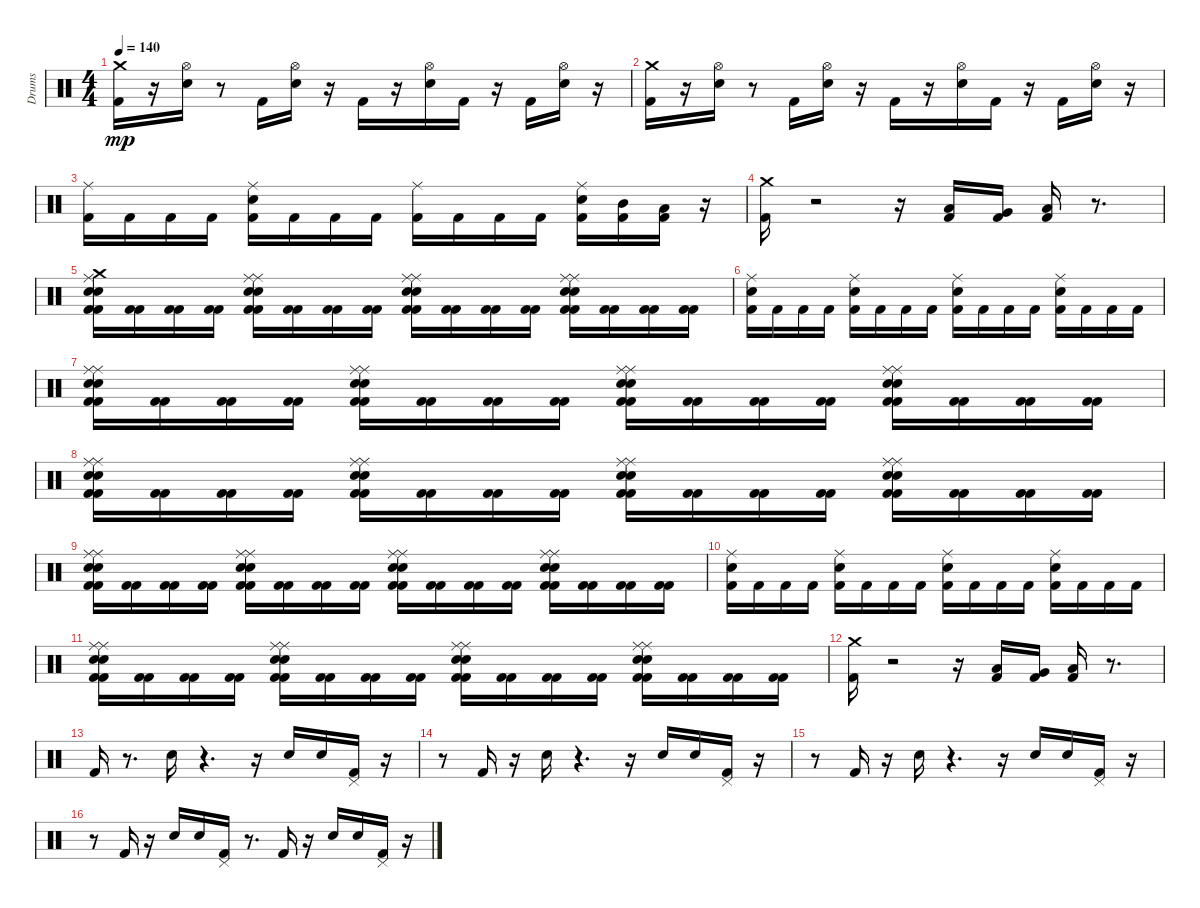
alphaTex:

\track ("Drums" "Drums") {instrument percussion}
\staff {score}
\articulation defaults
\ts (4 4)
\tempo 140
\clef neutral
\ks c
("Kick (hit) 2" "Crash medium (hit)").16{dy mp} r.16 ("Hi-Hat (open)" "Electric Snare (hit)").16 r.8 "Kick (hit) 2".16 ("Hi-Hat (open)" "Electric Snare (hit)").16 r.16 "Kick (hit) 2".16 r.16 ("Electric Snare (hit)" "Hi-Hat (open)").16 "Kick (hit) 2".16 r.16 "Kick (hit) 2".16 ("Electric Snare (hit)" "Hi-Hat (open)").16 r.16 |
("Kick (hit) 2" "Crash medium (hit)").16 r.16 ("Hi-Hat (open)" "Electric Snare (hit)").16 r.8 "Kick (hit) 2".16 ("Hi-Hat (open)" "Electric Snare (hit)").16 r.16 "Kick (hit) 2".16 r.16 ("Hi-Hat (open)" "Electric Snare (hit)").16 "Kick (hit) 2".16 r.16 "Kick (hit) 2".16 ("Hi-Hat (open)" "Electric Snare (hit)").16 r.16 |
("Kick (hit) 2" "Ride (middle)").16 "Kick (hit) 2".16 "Kick (hit) 2".16 "Kick (hit) 2".16 ("Ride (middle)" "Electric Snare (hit)" "Kick (hit) 2").16 "Kick (hit) 2".16 "Kick (hit) 2".16 "Kick (hit) 2".16 ("Ride (middle)" "Kick (hit) 2").16 "Kick (hit) 2".16 "Kick (hit) 2".16 "Kick (hit) 2".16 ("Kick (hit) 2" "Electric Snare (hit)" "Ride (middle)").16 ("Mid Tom (hit)" "Kick (hit) 2").16 ("Low Tom (hit)" "Kick (hit) 2").16 r.16 |
("Crash medium (hit)" "Kick (hit) 2").16 r.2 r.16 ("Low Tom (hit)" "Kick (hit) 2").16 ("Kick (hit) 2" "Very Low Tom (hit)").16 ("Low Floor Tom (hit)" "Kick (hit) 2").16 r.8{d} |
("Electric Snare (hit)" "Ride (middle)" "Electric Snare (hit)" "Kick (hit) 2" "Crash medium (hit)" "Kick (hit) 2").16 ("Kick (hit) 2" "Kick (hit) 2").16 ("Kick (hit) 2" "Kick (hit) 2").16 ("Kick (hit) 2" "Kick (hit) 2").16 ("Kick (hit) 2" "Ride (middle)" "Kick (hit) 2" "Electric Snare (hit)" "Electric Snare (hit)" "Ride (middle)").16 ("Kick (hit) 2" "Kick (hit) 2").16 ("Kick (hit) 2" "Kick (hit) 2").16 ("Kick (hit) 2" "Kick (hit) 2").16 ("Kick (hit) 2" "Electric Snare (hit)" "Kick (hit) 2" "Electric Snare (hit)" "Ride (middle)" "Ride (middle)").16 ("Kick (hit) 2" "Kick (hit) 2").16 ("Kick (hit) 2" "Kick (hit) 2").16 ("Kick (hit) 2" "Kick (hit) 2").16 ("Kick (hit) 2" "Electric Snare (hit)" "Ride (middle)" "Kick (hit) 2" "Electric Snare (hit)" "Ride (middle)").16 ("Kick (hit) 2" "Kick (hit) 2").16 ("Kick (hit) 2" "Kick (hit) 2").16 ("Kick (hit) 2" "Kick (hit) 2").16 |
("Kick (hit) 2" "Ride (middle)" "Electric Snare (hit)").16 "Kick (hit) 2".16 "Kick (hit) 2".16 "Kick (hit) 2".16 ("Ride (middle)" "Electric Snare (hit)" "Kick (hit) 2").16 "Kick (hit) 2".16 "Kick (hit) 2".16 "Kick (hit) 2".16 ("Ride (middle)" "Electric Snare (hit)" "Kick (hit) 2").16 "Kick (hit) 2".16 "Kick (hit) 2".16 "Kick (hit) 2".16 ("Kick (hit) 2" "Electric Snare (hit)" "Ride (middle)").16 "Kick (hit) 2".16 "Kick (hit) 2".16 "Kick (hit) 2".16 |
("Kick (hit) 2" "Kick (hit) 2" "Ride (middle)" "Electric Snare (hit)" "Electric Snare (hit)" "Ride (middle)").16 ("Kick (hit) 2" "Kick (hit) 2").16 ("Kick (hit) 2" "Kick (hit) 2").16 ("Kick (hit) 2" "Kick (hit) 2").16 ("Ride (middle)" "Electric Snare (hit)" "Kick (hit) 2" "Kick (hit) 2" "Ride (middle)" "Electric Snare (hit)").16 ("Kick (hit) 2" "Kick (hit) 2").16 ("Kick (hit) 2" "Kick (hit) 2").16 ("Kick (hit) 2" "Kick (hit) 2").16 ("Kick (hit) 2" "Ride (middle)" "Kick (hit) 2" "Ride (middle)" "Electric Snare (hit)" "Electric Snare (hit)").16 ("Kick (hit) 2" "Kick (hit) 2").16 ("Kick (hit) 2" "Kick (hit) 2").16 ("Kick (hit) 2" "Kick (hit) 2").16 ("Kick (hit) 2" "Ride (middle)" "Electric Snare (hit)" "Ride (middle)" "Electric Snare (hit)" "Kick (hit) 2").16 ("Kick (hit) 2" "Kick (hit) 2").16 ("Kick (hit) 2" "Kick (hit) 2").16 ("Kick (hit) 2" "Kick (hit) 2").16 |
("Kick (hit) 2" "Ride (middle)" "Kick (hit) 2" "Ride (middle)" "Electric Snare (hit)" "Electric Snare (hit)").16 ("Kick (hit) 2" "Kick (hit) 2").16 ("Kick (hit) 2" "Kick (hit) 2").16 ("Kick (hit) 2" "Kick (hit) 2").16 ("Kick (hit) 2" "Ride (middle)" "Electric Snare (hit)" "Ride (middle)" "Kick (hit) 2" "Electric Snare (hit)").16 ("Kick (hit) 2" "Kick (hit) 2").16 ("Kick (hit) 2" "Kick (hit) 2").16 ("Kick (hit) 2" "Kick (hit) 2").16 ("Ride (middle)" "Electric Snare (hit)" "Electric Snare (hit)" "Ride (middle)" "Kick (hit) 2" "Kick (hit) 2").16 ("Kick (hit) 2" "Kick (hit) 2").16 ("Kick (hit) 2" "Kick (hit) 2").16 ("Kick (hit) 2" "Kick (hit) 2").16 ("Electric Snare (hit)" "Kick (hit) 2" "Ride (middle)" "Kick (hit) 2" "Electric Snare (hit)" "Ride (middle)").16 ("Kick (hit) 2" "Kick (hit) 2").16 ("Kick (hit) 2" "Kick (hit) 2").16 ("Kick (hit) 2" "Kick (hit) 2").16 |
("Electric Snare (hit)" "Electric Snare (hit)" "Ride (middle)" "Kick (hit) 2" "Kick (hit) 2" "Ride (middle)").16 ("Kick (hit) 2" "Kick (hit) 2").16 ("Kick (hit) 2" "Kick (hit) 2").16 ("Kick (hit) 2" "Kick (hit) 2").16 ("Ride (middle)" "Ride (middle)" "Electric Snare (hit)" "Kick (hit) 2" "Electric Snare (hit)" "Kick (hit) 2").16 ("Kick (hit) 2" "Kick (hit) 2").16 ("Kick (hit) 2" "Kick (hit) 2").16 ("Kick (hit) 2" "Kick (hit) 2").16 ("Kick (hit) 2" "Kick (hit) 2" "Ride (middle)" "Ride (middle)" "Electric Snare (hit)" "Electric Snare (hit)").16 ("Kick (hit) 2" "Kick (hit) 2").16 ("Kick (hit) 2" "Kick (hit) 2").16 ("Kick (hit) 2" "Kick (hit) 2").16 ("Electric Snare (hit)" "Ride (middle)" "Electric Snare (hit)" "Kick (hit) 2" "Ride (middle)" "Kick (hit) 2").16 ("Kick (hit) 2" "Kick (hit) 2").16 ("Kick (hit) 2" "Kick (hit) 2").16 ("Kick (hit) 2" "Kick (hit) 2").16 |
("Electric Snare (hit)" "Ride (middle)" "Kick (hit) 2").16 "Kick (hit) 2".16 "Kick (hit) 2".16 "Kick (hit) 2".16 ("Ride (middle)" "Kick (hit) 2" "Electric Snare (hit)").16 "Kick (hit) 2".16 "Kick (hit) 2".16 "Kick (hit) 2".16 ("Electric Snare (hit)" "Ride (middle)" "Kick (hit) 2").16 "Kick (hit) 2".16 "Kick (hit) 2".16 "Kick (hit) 2".16 ("Kick (hit) 2" "Electric Snare (hit)" "Ride (middle)").16 "Kick (hit) 2".16 "Kick (hit) 2".16 "Kick (hit) 2".16 |
("Electric Snare (hit)" "Kick (hit) 2" "Ride (middle)" "Electric Snare (hit)" "Kick (hit) 2" "Ride (middle)").16 ("Kick (hit) 2" "Kick (hit) 2").16 ("Kick (hit) 2" "Kick (hit) 2").16 ("Kick (hit) 2" "Kick (hit) 2").16 ("Electric Snare (hit)" "Electric Snare (hit)" "Ride (middle)" "Ride (middle)" "Kick (hit) 2" "Kick (hit) 2").16 ("Kick (hit) 2" "Kick (hit) 2").16 ("Kick (hit) 2" "Kick (hit) 2").16 ("Kick (hit) 2" "Kick (hit) 2").16 ("Ride (middle)" "Ride (middle)" "Kick (hit) 2" "Electric Snare (hit)" "Electric Snare (hit)" "Kick (hit) 2").16 ("Kick (hit) 2" "Kick (hit) 2").16 ("Kick (hit) 2" "Kick (hit) 2").16 ("Kick (hit) 2" "Kick (hit) 2").16 ("Ride (middle)" "Ride (middle)" "Electric Snare (hit)" "Electric Snare (hit)" "Kick (hit) 2" "Kick (hit) 2").16 ("Kick (hit) 2" "Kick (hit) 2").16 ("Kick (hit) 2" "Kick (hit) 2").16 ("Kick (hit) 2" "Kick (hit) 2").16 |
("Kick (hit) 2" "Crash medium (hit)").16 r.2 r.16 ("Low Tom (hit)" "Kick (hit) 2").16 ("Very Low Tom (hit)" "Kick (hit) 2").16 ("Low Floor Tom (hit)" "Kick (hit) 2").16 r.8{d} |
"Kick (hit) 2".16 r.8{d} "Electric Snare (hit)".16 r.4{d} r.16 "Electric Snare (hit)".16 "Electric Snare (hit)".16 ("Pedal Hi-Hat (hit)" "Kick (hit) 2").16 r.16 |
r.8 "Kick (hit) 2".16 r.16 "Electric Snare (hit)".16 r.4{d} r.16 "Electric Snare (hit)".16 "Electric Snare (hit)".16 ("Pedal Hi-Hat (hit)" "Kick (hit) 2").16 r.16 |
r.8 "Kick (hit) 2".16 r.16 "Electric Snare (hit)".16 r.4{d} r.16 "Electric Snare (hit)".16 "Electric Snare (hit)".16 ("Kick (hit) 2" "Pedal Hi-Hat (hit)").16 r.16 |
r.8 "Kick (hit) 2".16 r.16 "Electric Snare (hit)".16 "Electric Snare (hit)".16 ("Kick (hit) 2" "Pedal Hi-Hat (hit)").16 r.8{d} "Kick (hit) 2".16 r.16 "Electric Snare (hit)".16 "Electric Snare (hit)".16 ("Pedal Hi-Hat (hit)" "Kick (hit) 2").16 r.16
